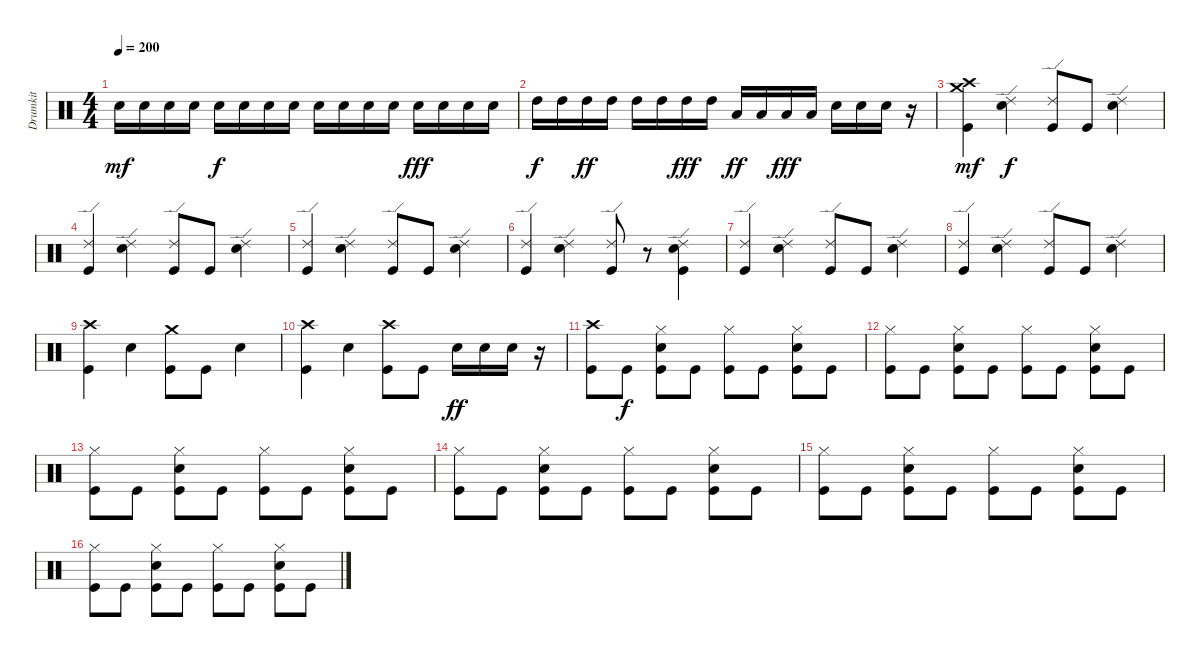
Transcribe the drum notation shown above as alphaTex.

\track ("Drumkit" "Drumkit") {instrument percussion}
\staff {score}
\articulation defaults
\ts (4 4)
\tempo 200
\clef neutral
\ks c "Snare (hit) 2".16{dy mf} "Snare (hit) 2".16 "Snare (hit) 2".16 "Snare (hit) 2".16 "Snare (hit) 2".16{dy f} "Snare (hit) 2".16 "Snare (hit) 2".16 "Snare (hit) 2".16 "Snare (hit) 2".16 "Snare (hit) 2".16 "Snare (hit) 2".16 "Snare (hit) 2".16 "Snare (hit) 2".16{dy fff} "Snare (hit) 2".16 "Snare (hit) 2".16 "Snare (hit) 2".16
|
"High Tom (hit)".16{dy f} "High Tom (hit)".16 "High Tom (hit)".16{dy ff} "High Tom (hit)".16 "High Tom (hit)".16 "High Tom (hit)".16 "High Tom (hit)".16{dy fff} "High Tom (hit)".16 "Low Tom (hit)".16{dy ff} "Low Tom (hit)".16 "Low Tom (hit)".16{dy fff} "Low Tom (hit)".16 "Snare (hit) 2".16 "Snare (hit) 2".16 "Snare (hit) 2".16 r.16 |
("Crash high (hit)" "Crash medium (hit)" "Kick (hit)").4{dy mf} ("Ride (edge) 2" "Snare (hit) 2").4{dy f} ("Ride (edge) 2" "Kick (hit)").8 "Kick (hit)".8 ("Ride (edge) 2" "Snare (hit) 2").4 |
("Ride (edge) 2" "Kick (hit)").4 ("Ride (edge) 2" "Snare (hit) 2").4 ("Ride (edge) 2" "Kick (hit)").8 "Kick (hit)".8 ("Ride (edge) 2" "Snare (hit) 2").4 |
("Ride (edge) 2" "Kick (hit)").4 ("Ride (edge) 2" "Snare (hit) 2").4 ("Ride (edge) 2" "Kick (hit)").8 "Kick (hit)".8 ("Ride (edge) 2" "Snare (hit) 2").4 |
("Ride (edge) 2" "Kick (hit)").4 ("Ride (edge) 2" "Snare (hit) 2").4 ("Ride (edge) 2" "Kick (hit)").8 r.8 ("Ride (edge) 2" "Snare (hit) 2" "Kick (hit)").4 |
("Ride (edge) 2" "Kick (hit)").4 ("Ride (edge) 2" "Snare (hit) 2").4 ("Ride (edge) 2" "Kick (hit)").8 "Kick (hit)".8 ("Ride (edge) 2" "Snare (hit) 2").4 |
("Ride (edge) 2" "Kick (hit)").4 ("Ride (edge) 2" "Snare (hit) 2").4 ("Ride (edge) 2" "Kick (hit)").8 "Kick (hit)".8 ("Ride (edge) 2" "Snare (hit) 2").4 |
("Crash high (hit)" "Kick (hit)").4 "Snare (hit) 2".4 ("Crash medium (hit)" "Kick (hit)").8 "Kick (hit)".8 "Snare (hit) 2".4 |
("Crash high (hit)" "Kick (hit)").4 "Snare (hit) 2".4 ("Crash high (hit)" "Kick (hit)").8 "Kick (hit)".8 "Snare (hit) 2".16{dy ff} "Snare (hit) 2".16 "Snare (hit) 2".16 r.16 |
("Crash high (hit)" "Kick (hit)").8 "Kick (hit)".8{dy f} ("Hi-Hat (closed)" "Snare (hit) 2" "Kick (hit)").8 "Kick (hit)".8 ("Hi-Hat (closed)" "Kick (hit)").8 "Kick (hit)".8 ("Hi-Hat (closed)" "Snare (hit) 2" "Kick (hit)").8 "Kick (hit)".8 |
("Hi-Hat (closed)" "Kick (hit)").8 "Kick (hit)".8 ("Hi-Hat (closed)" "Snare (hit) 2" "Kick (hit)").8 "Kick (hit)".8 ("Hi-Hat (closed)" "Kick (hit)").8 "Kick (hit)".8 ("Hi-Hat (closed)" "Snare (hit) 2" "Kick (hit)").8 "Kick (hit)".8 |
("Hi-Hat (closed)" "Kick (hit)").8 "Kick (hit)".8 ("Hi-Hat (closed)" "Snare (hit) 2" "Kick (hit)").8 "Kick (hit)".8 ("Hi-Hat (closed)" "Kick (hit)").8 "Kick (hit)".8 ("Hi-Hat (closed)" "Snare (hit) 2" "Kick (hit)").8 "Kick (hit)".8 |
("Hi-Hat (closed)" "Kick (hit)").8 "Kick (hit)".8 ("Hi-Hat (closed)" "Snare (hit) 2" "Kick (hit)").8 "Kick (hit)".8 ("Hi-Hat (closed)" "Kick (hit)").8 "Kick (hit)".8 ("Hi-Hat (closed)" "Snare (hit) 2" "Kick (hit)").8 "Kick (hit)".8 |
("Hi-Hat (closed)" "Kick (hit)").8 "Kick (hit)".8 ("Hi-Hat (closed)" "Snare (hit) 2" "Kick (hit)").8 "Kick (hit)".8 ("Hi-Hat (closed)" "Kick (hit)").8 "Kick (hit)".8 ("Hi-Hat (closed)" "Snare (hit) 2" "Kick (hit)").8 "Kick (hit)".8 |
("Hi-Hat (closed)" "Kick (hit)").8 "Kick (hit)".8 ("Hi-Hat (closed)" "Snare (hit) 2" "Kick (hit)").8 "Kick (hit)".8 ("Hi-Hat (closed)" "Kick (hit)").8 "Kick (hit)".8 ("Hi-Hat (closed)" "Snare (hit) 2" "Kick (hit)").8 "Kick (hit)".8
